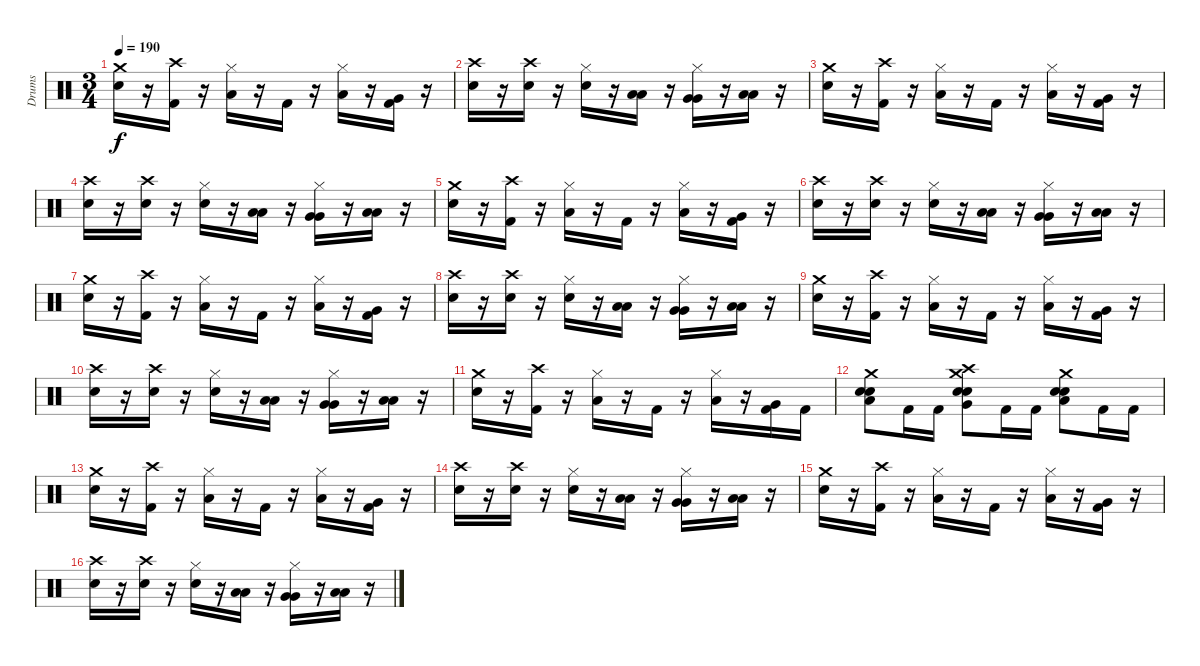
\track ("Drums" "Drums") {instrument percussion}
\staff {score}
\articulation defaults
\ts (3 4)
\tempo 190
\clef neutral
\ks c
("Crash medium (hit)" "Snare (hit) 2").16{dy f} r.16 ("Crash high (hit)" "Kick (hit) 2").16 r.16 ("Hi-Hat (closed)" "Low Floor Tom (hit)").16 r.16 "Kick (hit) 2".16 r.16 ("Hi-Hat (closed)" "Low Tom (hit)").16 r.16 ("Very Low Tom (hit)" "Kick (hit) 2").16 r.16 |
("Crash high (hit)" "Snare (hit) 2").16 r.16 ("Crash high (hit)" "Snare (hit) 2").16 r.16 ("Hi-Hat (closed)" "Snare (hit) 2").16 r.16 ("Low Tom (hit)" "Low Tom (hit)").16 r.16 ("Hi-Hat (closed)" "Very Low Tom (hit)" "Very Low Tom (hit)").16 r.16 ("Low Floor Tom (hit)" "Low Floor Tom (hit)").16 r.16 |
("Crash medium (hit)" "Snare (hit) 2").16 r.16 ("Crash high (hit)" "Kick (hit) 2").16 r.16 ("Hi-Hat (closed)" "Low Floor Tom (hit)").16 r.16 "Kick (hit) 2".16 r.16 ("Hi-Hat (closed)" "Low Tom (hit)").16 r.16 ("Very Low Tom (hit)" "Kick (hit) 2").16 r.16 |
("Crash high (hit)" "Snare (hit) 2").16 r.16 ("Crash high (hit)" "Snare (hit) 2").16 r.16 ("Hi-Hat (closed)" "Snare (hit) 2").16 r.16 ("Low Tom (hit)" "Low Tom (hit)").16 r.16 ("Hi-Hat (closed)" "Very Low Tom (hit)" "Very Low Tom (hit)").16 r.16 ("Low Floor Tom (hit)" "Low Floor Tom (hit)").16 r.16 |
("Crash medium (hit)" "Snare (hit) 2").16 r.16 ("Crash high (hit)" "Kick (hit) 2").16 r.16 ("Hi-Hat (closed)" "Low Floor Tom (hit)").16 r.16 "Kick (hit) 2".16 r.16 ("Hi-Hat (closed)" "Low Tom (hit)").16 r.16 ("Very Low Tom (hit)" "Kick (hit) 2").16 r.16 |
("Crash high (hit)" "Snare (hit) 2").16 r.16 ("Crash high (hit)" "Snare (hit) 2").16 r.16 ("Hi-Hat (closed)" "Snare (hit) 2").16 r.16 ("Low Tom (hit)" "Low Tom (hit)").16 r.16 ("Hi-Hat (closed)" "Very Low Tom (hit)" "Very Low Tom (hit)").16 r.16 ("Low Floor Tom (hit)" "Low Floor Tom (hit)").16 r.16 |
("Crash medium (hit)" "Snare (hit) 2").16 r.16 ("Crash high (hit)" "Kick (hit) 2").16 r.16 ("Hi-Hat (closed)" "Low Floor Tom (hit)").16 r.16 "Kick (hit) 2".16 r.16 ("Hi-Hat (closed)" "Low Tom (hit)").16 r.16 ("Very Low Tom (hit)" "Kick (hit) 2").16 r.16 |
("Crash high (hit)" "Snare (hit) 2").16 r.16 ("Crash high (hit)" "Snare (hit) 2").16 r.16 ("Hi-Hat (closed)" "Snare (hit) 2").16 r.16 ("Low Tom (hit)" "Low Tom (hit)").16 r.16 ("Hi-Hat (closed)" "Very Low Tom (hit)" "Very Low Tom (hit)").16 r.16 ("Low Floor Tom (hit)" "Low Floor Tom (hit)").16 r.16 |
("Crash medium (hit)" "Snare (hit) 2").16 r.16 ("Crash high (hit)" "Kick (hit) 2").16 r.16 ("Hi-Hat (closed)" "Low Floor Tom (hit)").16 r.16 "Kick (hit) 2".16 r.16 ("Hi-Hat (closed)" "Low Tom (hit)").16 r.16 ("Very Low Tom (hit)" "Kick (hit) 2").16 r.16 |
("Crash high (hit)" "Snare (hit) 2").16 r.16 ("Crash high (hit)" "Snare (hit) 2").16 r.16 ("Hi-Hat (closed)" "Snare (hit) 2").16 r.16 ("Low Tom (hit)" "Low Tom (hit)").16 r.16 ("Hi-Hat (closed)" "Very Low Tom (hit)" "Very Low Tom (hit)").16 r.16 ("Low Floor Tom (hit)" "Low Floor Tom (hit)").16 r.16 |
("Crash medium (hit)" "Snare (hit) 2").16 r.16 ("Crash high (hit)" "Kick (hit) 2").16 r.16 ("Hi-Hat (closed)" "Low Floor Tom (hit)").16 r.16 "Kick (hit) 2".16 r.16 ("Hi-Hat (closed)" "Low Tom (hit)").16 r.16 ("Very Low Tom (hit)" "Kick (hit) 2").16 "Kick (hit) 2".16 |
("Crash medium (hit)" "Snare (hit) 2" "Snare (hit) 2" "Low Tom (hit)").8 "Kick (hit) 2".16 "Kick (hit) 2".16 ("Crash high (hit)" "Snare (hit) 2" "Snare (hit) 2" "Very Low Tom (hit)" "Crash medium (hit)").8 "Kick (hit) 2".16 "Kick (hit) 2".16 ("Crash medium (hit)" "Snare (hit) 2" "Snare (hit) 2" "Low Tom (hit)").8 "Kick (hit) 2".16 "Kick (hit) 2".16 |
("Crash medium (hit)" "Snare (hit) 2").16 r.16 ("Crash high (hit)" "Kick (hit) 2").16 r.16 ("Hi-Hat (closed)" "Low Floor Tom (hit)").16 r.16 "Kick (hit) 2".16 r.16 ("Hi-Hat (closed)" "Low Tom (hit)").16 r.16 ("Very Low Tom (hit)" "Kick (hit) 2").16 r.16 |
("Crash high (hit)" "Snare (hit) 2").16 r.16 ("Crash high (hit)" "Snare (hit) 2").16 r.16 ("Hi-Hat (closed)" "Snare (hit) 2").16 r.16 ("Low Tom (hit)" "Low Tom (hit)").16 r.16 ("Hi-Hat (closed)" "Very Low Tom (hit)" "Very Low Tom (hit)").16 r.16 ("Low Floor Tom (hit)" "Low Floor Tom (hit)").16 r.16 |
("Crash medium (hit)" "Snare (hit) 2").16 r.16 ("Crash high (hit)" "Kick (hit) 2").16 r.16 ("Hi-Hat (closed)" "Low Floor Tom (hit)").16 r.16 "Kick (hit) 2".16 r.16 ("Hi-Hat (closed)" "Low Tom (hit)").16 r.16 ("Very Low Tom (hit)" "Kick (hit) 2").16 r.16 |
("Crash high (hit)" "Snare (hit) 2").16 r.16 ("Crash high (hit)" "Snare (hit) 2").16 r.16 ("Hi-Hat (closed)" "Snare (hit) 2").16 r.16 ("Low Tom (hit)" "Low Tom (hit)").16 r.16 ("Hi-Hat (closed)" "Very Low Tom (hit)" "Very Low Tom (hit)").16 r.16 ("Low Floor Tom (hit)" "Low Floor Tom (hit)").16 r.16
